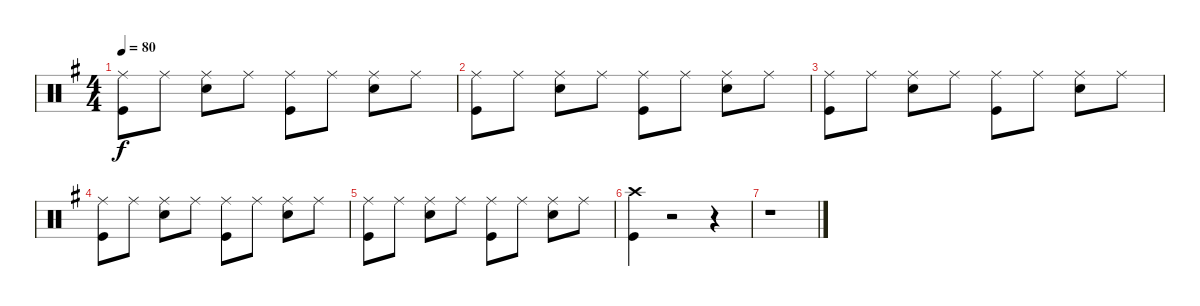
\track "" {instrument percussion}
\staff {score}
\articulation defaults
\ts (4 4)
\tempo 80
\clef neutral
\ks g
("Ride (middle)" "Kick (hit)").8{dy f} "Ride (middle)".8 ("Ride (middle)" "Snare (hit) 2").8 "Ride (middle)".8 ("Ride (middle)" "Kick (hit)").8 "Ride (middle)".8 ("Ride (middle)" "Snare (hit) 2").8 "Ride (middle)".8 |
("Ride (middle)" "Kick (hit)").8 "Ride (middle)".8 ("Ride (middle)" "Snare (hit) 2").8 "Ride (middle)".8 ("Ride (middle)" "Kick (hit)").8 "Ride (middle)".8 ("Ride (middle)" "Snare (hit) 2").8 "Ride (middle)".8 |
("Ride (middle)" "Kick (hit)").8 "Ride (middle)".8 ("Ride (middle)" "Snare (hit) 2").8 "Ride (middle)".8 ("Ride (middle)" "Kick (hit)").8 "Ride (middle)".8 ("Ride (middle)" "Snare (hit) 2").8 "Ride (middle)".8 |
("Ride (middle)" "Kick (hit)").8 "Ride (middle)".8 ("Ride (middle)" "Snare (hit) 2").8 "Ride (middle)".8 ("Ride (middle)" "Kick (hit)").8{txt ""} "Ride (middle)".8 ("Ride (middle)" "Snare (hit) 2").8 "Ride (middle)".8 |
("Ride (middle)" "Kick (hit)").8 "Ride (middle)".8 ("Ride (middle)" "Snare (hit) 2").8 "Ride (middle)".8 ("Ride (middle)" "Kick (hit)").8 "Ride (middle)".8 ("Ride (middle)" "Snare (hit) 2").8 "Ride (middle)".8 |
("Crash high (hit)" "Kick (hit)").4 r.2 r.4 |
r.1
